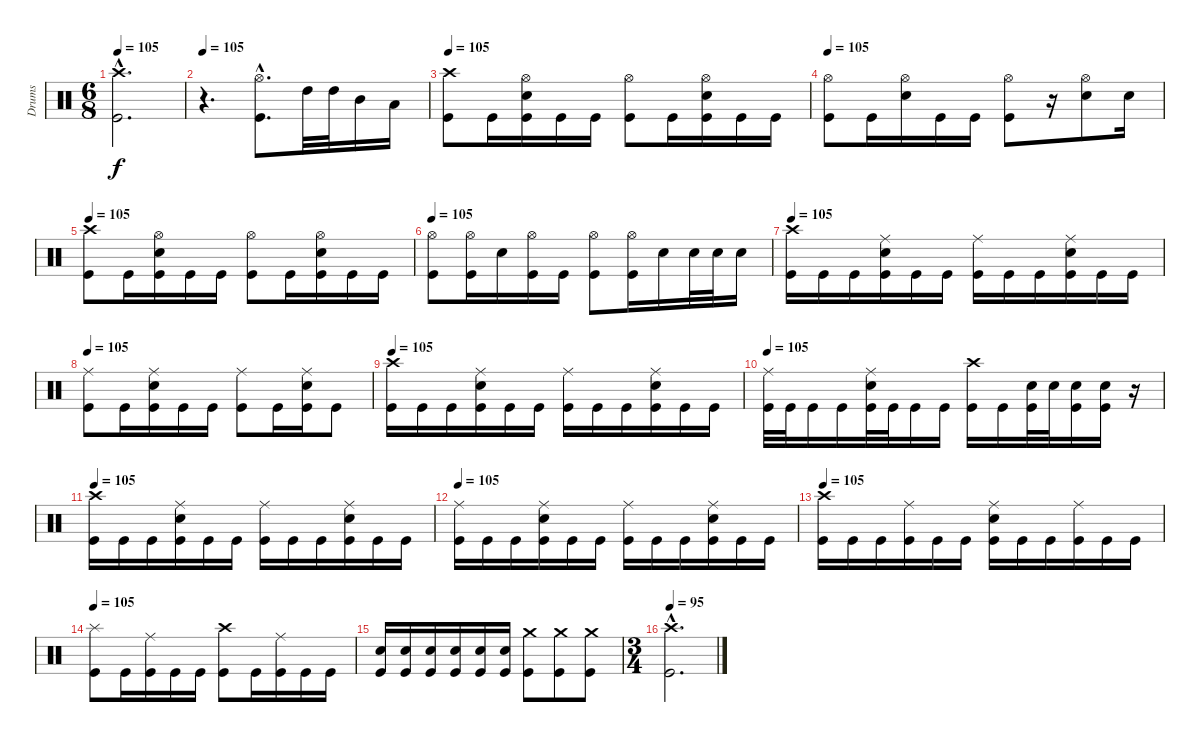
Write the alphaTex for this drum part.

\track ("Drums" "Drums") {instrument percussion}
\staff {score}
\articulation defaults
\ts (6 8)
\tempo 105
\clef neutral
\ks c
("Crash high (hit)"{hac} "Kick (hit)"{hac}).2{d dy f} |
\tempo 105
r.4{d} ("Hi-Hat (open)"{hac} "Kick (hit)"{hac}).8{d} "High Tom (hit)".32 "High Tom (hit)".32 "Mid Tom (hit)".16 "Low Tom (hit)".16 |
\tempo 105
("Crash high (hit)" "Kick (hit)").8 "Kick (hit)".16 ("Hi-Hat (open)" "Electric Snare (hit)" "Kick (hit)").16 "Kick (hit)".16 "Kick (hit)".16 ("Hi-Hat (open)" "Kick (hit)").8 "Kick (hit)".16 ("Hi-Hat (open)" "Electric Snare (hit)" "Kick (hit)").16 "Kick (hit)".16 "Kick (hit)".16 |
\tempo 105
("Hi-Hat (open)" "Kick (hit)").8 "Kick (hit)".16 ("Hi-Hat (open)" "Electric Snare (hit)").16 "Kick (hit)".16 "Kick (hit)".16 ("Hi-Hat (open)" "Kick (hit)").8 r.16 ("Hi-Hat (open)" "Electric Snare (hit)").8 "Electric Snare (hit)".16 |
\tempo 105
("Crash high (hit)" "Kick (hit)").8 "Kick (hit)".16 ("Hi-Hat (open)" "Electric Snare (hit)" "Kick (hit)").16 "Kick (hit)".16 "Kick (hit)".16 ("Hi-Hat (open)" "Kick (hit)").8 "Kick (hit)".16 ("Hi-Hat (open)" "Electric Snare (hit)" "Kick (hit)").16 "Kick (hit)".16 "Kick (hit)".16 |
\tempo 105
("Hi-Hat (open)" "Kick (hit)").8 ("Hi-Hat (open)" "Kick (hit)").16 "Electric Snare (hit)".16 ("Hi-Hat (open)" "Kick (hit)").16 "Kick (hit)".16 ("Hi-Hat (open)" "Kick (hit)").8 ("Hi-Hat (open)" "Kick (hit)").16 "Electric Snare (hit)".16 "Electric Snare (hit)".32 "Electric Snare (hit)".32 "Electric Snare (hit)".16 |
\tempo 105
("Crash high (hit)" "Kick (hit)").16 "Kick (hit)".16 "Kick (hit)".16 ("Ride (middle)" "Electric Snare (hit)" "Kick (hit)").16 "Kick (hit)".16 "Kick (hit)".16 ("Ride (middle)" "Kick (hit)").16 "Kick (hit)".16 "Kick (hit)".16 ("Ride (middle)" "Electric Snare (hit)" "Kick (hit)").16 "Kick (hit)".16 "Kick (hit)".16 |
\tempo 105
("Ride (middle)" "Kick (hit)").8 "Kick (hit)".16 ("Ride (middle)" "Electric Snare (hit)" "Kick (hit)").16 "Kick (hit)".16 "Kick (hit)".16 ("Ride (middle)" "Kick (hit)").8 "Kick (hit)".16 ("Ride (middle)" "Electric Snare (hit)" "Kick (hit)").16 "Kick (hit)".8 |
\tempo 105
("Crash high (hit)" "Kick (hit)").16 "Kick (hit)".16 "Kick (hit)".16 ("Ride (middle)" "Electric Snare (hit)" "Kick (hit)").16 "Kick (hit)".16 "Kick (hit)".16 ("Ride (middle)" "Kick (hit)").16 "Kick (hit)".16 "Kick (hit)".16 ("Ride (middle)" "Electric Snare (hit)" "Kick (hit)").16 "Kick (hit)".16 "Kick (hit)".16 |
\tempo 105
("Ride (middle)" "Kick (hit)").32 "Kick (hit)".32 "Kick (hit)".16 "Kick (hit)".16 ("Ride (middle)" "Electric Snare (hit)" "Kick (hit)").32 "Kick (hit)".32 "Kick (hit)".16 "Kick (hit)".16 ("Crash high (hit)" "Kick (hit)").16 "Kick (hit)".16 ("Electric Snare (hit)" "Kick (hit)").32 "Electric Snare (hit)".32 ("Electric Snare (hit)" "Kick (hit)").16 ("Electric Snare (hit)" "Kick (hit)").16 r.16 |
\tempo 105
("Crash high (hit)" "Kick (hit)").16 "Kick (hit)".16 "Kick (hit)".16 ("Ride (middle)" "Electric Snare (hit)" "Kick (hit)").16 "Kick (hit)".16 "Kick (hit)".16 ("Ride (middle)" "Kick (hit)").16 "Kick (hit)".16 "Kick (hit)".16 ("Ride (middle)" "Electric Snare (hit)" "Kick (hit)").16 "Kick (hit)".16 "Kick (hit)".16 |
\tempo 105
("Ride (middle)" "Kick (hit)").16 "Kick (hit)".16 "Kick (hit)".16 ("Ride (middle)" "Electric Snare (hit)" "Kick (hit)").16 "Kick (hit)".16 "Kick (hit)".16 ("Ride (middle)" "Kick (hit)").16 "Kick (hit)".16 "Kick (hit)".16 ("Ride (middle)" "Electric Snare (hit)" "Kick (hit)").16 "Kick (hit)".16 "Kick (hit)".16 |
\tempo 105
("Crash high (hit)" "Kick (hit)").16 "Kick (hit)".16 "Kick (hit)".16 ("Ride (middle)" "Kick (hit)").16 "Kick (hit)".16 "Kick (hit)".16 ("Ride (middle)" "Electric Snare (hit)" "Kick (hit)").16 "Kick (hit)".16 "Kick (hit)".16 ("Ride (middle)" "Kick (hit)").16 "Kick (hit)".16 "Kick (hit)".16 |
\tempo 105
("Splash (hit)" "Kick (hit)").8 "Kick (hit)".16 ("Ride (middle)" "Kick (hit)").16 "Kick (hit)".16 "Kick (hit)".16 ("Crash high (hit)" "Kick (hit)").8 "Kick (hit)".16 ("Ride (middle)" "Kick (hit)").16 "Kick (hit)".16 "Kick (hit)".16 |
("Electric Snare (hit)" "Kick (hit)").16 ("Electric Snare (hit)" "Kick (hit)").16 ("Electric Snare (hit)" "Kick (hit)").16 ("Electric Snare (hit)" "Kick (hit)").16 ("Electric Snare (hit)" "Kick (hit)").16 ("Electric Snare (hit)" "Kick (hit)").16 ("Crash medium (hit)" "Kick (hit)").8 ("Crash medium (hit)" "Kick (hit)").8 ("Crash medium (hit)" "Kick (hit)").8 |
\ts (3 4)
\tempo 95
("Crash high (hit)"{hac} "Kick (hit)"{hac}).2{d}
